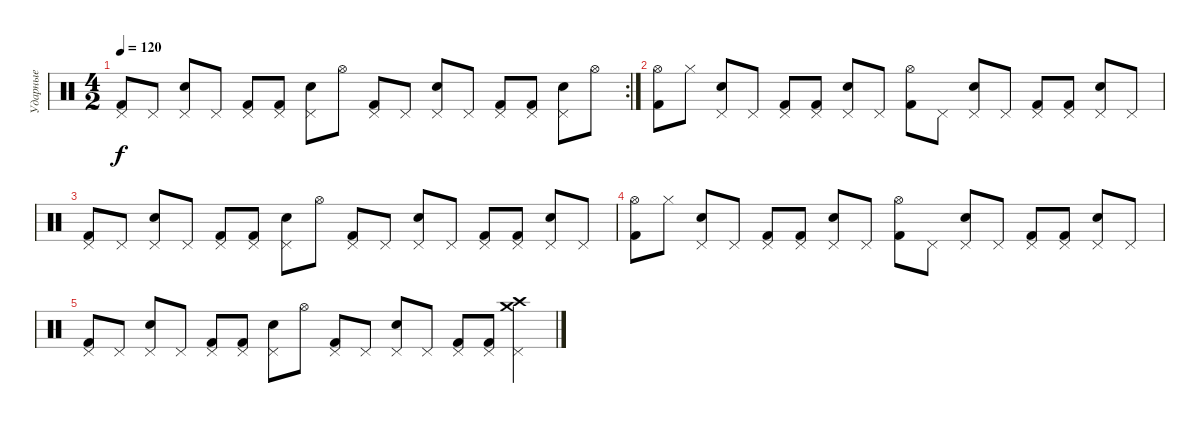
\track ("Ударные" "Ударные") {instrument percussion}
\staff {score}
\articulation defaults
\rc 2
\ts (4 2)
\tempo 120
\clef neutral
\ks c
("Kick (hit) 2" "Pedal Hi-Hat (hit)").8{dy f} "Pedal Hi-Hat (hit)".8 ("Snare (hit) 2" "Pedal Hi-Hat (hit)").8 "Pedal Hi-Hat (hit)".8 ("Kick (hit) 2" "Pedal Hi-Hat (hit)").8 ("Kick (hit) 2" "Pedal Hi-Hat (hit)").8 ("Snare (hit) 2" "Pedal Hi-Hat (hit)").8 "Hi-Hat (open)".8 ("Kick (hit) 2" "Pedal Hi-Hat (hit)").8 "Pedal Hi-Hat (hit)".8 ("Snare (hit) 2" "Pedal Hi-Hat (hit)").8 "Pedal Hi-Hat (hit)".8 ("Kick (hit) 2" "Pedal Hi-Hat (hit)").8 ("Kick (hit) 2" "Pedal Hi-Hat (hit)").8 ("Snare (hit) 2" "Pedal Hi-Hat (hit)").8 "Hi-Hat (open)".8 |
("Kick (hit) 2" "Hi-Hat (open)").8 "Hi-Hat (closed)".8 ("Snare (hit) 2" "Pedal Hi-Hat (hit)").8 "Pedal Hi-Hat (hit)".8 ("Kick (hit) 2" "Pedal Hi-Hat (hit)").8 ("Kick (hit) 2" "Pedal Hi-Hat (hit)").8 ("Snare (hit) 2" "Pedal Hi-Hat (hit)").8 "Pedal Hi-Hat (hit)".8 ("Kick (hit) 2" "Hi-Hat (open)").8 "Pedal Hi-Hat (hit)".8 ("Snare (hit) 2" "Pedal Hi-Hat (hit)").8 "Pedal Hi-Hat (hit)".8 ("Kick (hit) 2" "Pedal Hi-Hat (hit)").8 ("Kick (hit) 2" "Pedal Hi-Hat (hit)").8 ("Snare (hit) 2" "Pedal Hi-Hat (hit)").8 "Pedal Hi-Hat (hit)".8 |
("Kick (hit) 2" "Pedal Hi-Hat (hit)").8 "Pedal Hi-Hat (hit)".8 ("Snare (hit) 2" "Pedal Hi-Hat (hit)").8 "Pedal Hi-Hat (hit)".8 ("Kick (hit) 2" "Pedal Hi-Hat (hit)").8 ("Kick (hit) 2" "Pedal Hi-Hat (hit)").8 ("Snare (hit) 2" "Pedal Hi-Hat (hit)").8 "Hi-Hat (open)".8 ("Kick (hit) 2" "Pedal Hi-Hat (hit)").8 "Pedal Hi-Hat (hit)".8 ("Snare (hit) 2" "Pedal Hi-Hat (hit)").8 "Pedal Hi-Hat (hit)".8 ("Kick (hit) 2" "Pedal Hi-Hat (hit)").8 ("Kick (hit) 2" "Pedal Hi-Hat (hit)").8 ("Snare (hit) 2" "Pedal Hi-Hat (hit)").8 "Pedal Hi-Hat (hit)".8 |
("Kick (hit) 2" "Hi-Hat (open)").8 "Hi-Hat (closed)".8 ("Snare (hit) 2" "Pedal Hi-Hat (hit)").8 "Pedal Hi-Hat (hit)".8 ("Kick (hit) 2" "Pedal Hi-Hat (hit)").8 ("Kick (hit) 2" "Pedal Hi-Hat (hit)").8 ("Snare (hit) 2" "Pedal Hi-Hat (hit)").8 "Pedal Hi-Hat (hit)".8 ("Kick (hit) 2" "Hi-Hat (open)").8 "Pedal Hi-Hat (hit)".8 ("Snare (hit) 2" "Pedal Hi-Hat (hit)").8 "Pedal Hi-Hat (hit)".8 ("Kick (hit) 2" "Pedal Hi-Hat (hit)").8 ("Kick (hit) 2" "Pedal Hi-Hat (hit)").8 ("Snare (hit) 2" "Pedal Hi-Hat (hit)").8 "Pedal Hi-Hat (hit)".8 |
("Kick (hit) 2" "Pedal Hi-Hat (hit)").8{volume 0} "Pedal Hi-Hat (hit)".8 ("Snare (hit) 2" "Pedal Hi-Hat (hit)").8 "Pedal Hi-Hat (hit)".8 ("Kick (hit) 2" "Pedal Hi-Hat (hit)").8 ("Kick (hit) 2" "Pedal Hi-Hat (hit)").8 ("Snare (hit) 2" "Pedal Hi-Hat (hit)").8 "Hi-Hat (open)".8 ("Kick (hit) 2" "Pedal Hi-Hat (hit)").8 "Pedal Hi-Hat (hit)".8 ("Snare (hit) 2" "Pedal Hi-Hat (hit)").8 "Pedal Hi-Hat (hit)".8 ("Kick (hit) 2" "Pedal Hi-Hat (hit)").8 ("Kick (hit) 2" "Pedal Hi-Hat (hit)").8 ("Crash high (hit)" "Crash medium (hit)" "Pedal Hi-Hat (hit)").4
